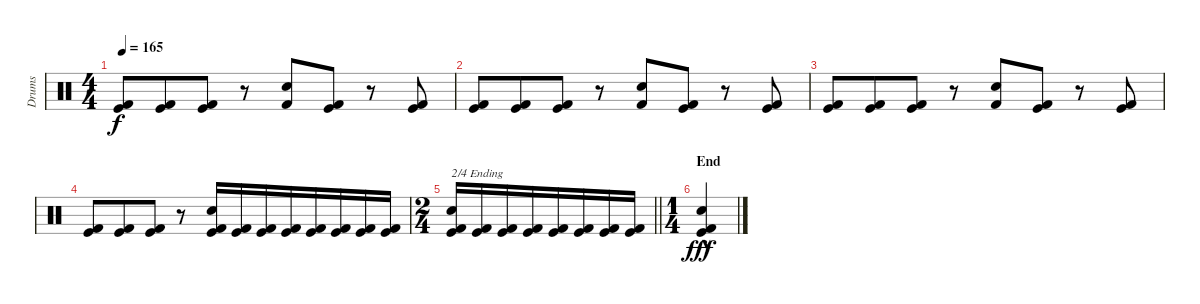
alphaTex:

\track ("Drums" "Drums") {instrument percussion}
\staff {score}
\articulation defaults
\ts (4 4)
\tempo 165
\clef neutral
\ks c
("Kick (hit)" "Kick (hit) 2").8{dy f} ("Kick (hit)" "Kick (hit) 2").8{beam merge} ("Kick (hit)" "Kick (hit) 2").8 r.8 ("Snare (hit) 2" "Kick (hit) 2").8 ("Kick (hit)" "Kick (hit) 2").8 r.8 ("Kick (hit)" "Kick (hit) 2").8 |
("Kick (hit)" "Kick (hit) 2").8 ("Kick (hit)" "Kick (hit) 2").8{beam merge} ("Kick (hit)" "Kick (hit) 2").8 r.8 ("Snare (hit) 2" "Kick (hit) 2").8 ("Kick (hit)" "Kick (hit) 2").8 r.8 ("Kick (hit)" "Kick (hit) 2").8 |
("Kick (hit)" "Kick (hit) 2").8 ("Kick (hit)" "Kick (hit) 2").8{beam merge} ("Kick (hit)" "Kick (hit) 2").8 r.8 ("Snare (hit) 2" "Kick (hit) 2").8 ("Kick (hit)" "Kick (hit) 2").8 r.8 ("Kick (hit)" "Kick (hit) 2").8 |
("Kick (hit)" "Kick (hit) 2").8 ("Kick (hit)" "Kick (hit) 2").8{beam merge} ("Kick (hit)" "Kick (hit) 2").8 r.8 ("Snare (hit) 2" "Kick (hit)" "Kick (hit) 2").16 ("Kick (hit)" "Kick (hit) 2").16 ("Kick (hit)" "Kick (hit) 2").16 ("Kick (hit)" "Kick (hit) 2").16{beam merge} ("Kick (hit)" "Kick (hit) 2").16 ("Kick (hit)" "Kick (hit) 2").16 ("Kick (hit)" "Kick (hit) 2").16 ("Kick (hit)" "Kick (hit) 2").16 |
\ts (2 4)
\barLineRight lightlight
("Snare (hit) 2" "Kick (hit)" "Kick (hit) 2").16{txt "2/4 Ending"} ("Kick (hit)" "Kick (hit) 2").16 ("Kick (hit)" "Kick (hit) 2").16 ("Kick (hit)" "Kick (hit) 2").16{beam merge} ("Kick (hit)" "Kick (hit) 2").16 ("Kick (hit)" "Kick (hit) 2").16 ("Kick (hit)" "Kick (hit) 2").16 ("Kick (hit)" "Kick (hit) 2").16 |
\ts (1 4)
\section ("" "End")
("Snare (hit) 2"{hac} "Kick (hit)" "Kick (hit) 2").4{dy fff}
